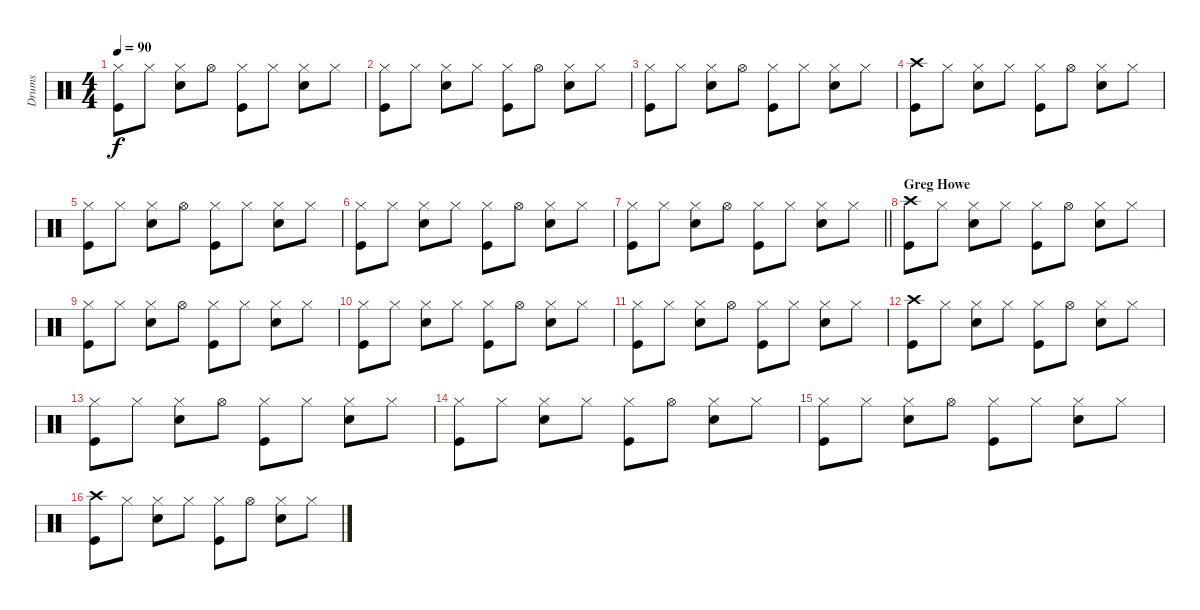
\track ("Drums" "Drums") {instrument percussion}
\staff {score}
\articulation defaults
\ts (4 4)
\tempo 90
\clef neutral
\ks c
("Hi-Hat (closed)" "Kick (hit)").8{dy f} "Hi-Hat (closed)".8 ("Hi-Hat (closed)" "Snare (hit) 2").8 "Hi-Hat (open)".8 ("Hi-Hat (closed)" "Kick (hit)").8 "Hi-Hat (closed)".8 ("Hi-Hat (closed)" "Snare (hit) 2").8 "Hi-Hat (closed)".8 |
("Hi-Hat (closed)" "Kick (hit)").8 "Hi-Hat (closed)".8 ("Hi-Hat (closed)" "Snare (hit) 2").8 "Hi-Hat (closed)".8 ("Hi-Hat (closed)" "Kick (hit)").8 "Hi-Hat (open)".8 ("Hi-Hat (closed)" "Snare (hit) 2").8 "Hi-Hat (closed)".8 |
("Hi-Hat (closed)" "Kick (hit)").8 "Hi-Hat (closed)".8 ("Hi-Hat (closed)" "Snare (hit) 2").8 "Hi-Hat (open)".8 ("Hi-Hat (closed)" "Kick (hit)").8 "Hi-Hat (closed)".8 ("Hi-Hat (closed)" "Snare (hit) 2").8 "Hi-Hat (closed)".8 |
("Crash high (hit)" "Kick (hit)").8 "Hi-Hat (closed)".8 ("Hi-Hat (closed)" "Snare (hit) 2").8 "Hi-Hat (closed)".8 ("Hi-Hat (closed)" "Kick (hit)").8 "Hi-Hat (open)".8 ("Hi-Hat (closed)" "Snare (hit) 2").8 "Hi-Hat (closed)".8 |
("Hi-Hat (closed)" "Kick (hit)").8 "Hi-Hat (closed)".8 ("Hi-Hat (closed)" "Snare (hit) 2").8 "Hi-Hat (open)".8 ("Hi-Hat (closed)" "Kick (hit)").8 "Hi-Hat (closed)".8 ("Hi-Hat (closed)" "Snare (hit) 2").8 "Hi-Hat (closed)".8 |
("Hi-Hat (closed)" "Kick (hit)").8 "Hi-Hat (closed)".8 ("Hi-Hat (closed)" "Snare (hit) 2").8 "Hi-Hat (closed)".8 ("Hi-Hat (closed)" "Kick (hit)").8 "Hi-Hat (open)".8 ("Hi-Hat (closed)" "Snare (hit) 2").8 "Hi-Hat (closed)".8 |
\barLineRight lightlight
("Hi-Hat (closed)" "Kick (hit)").8 "Hi-Hat (closed)".8 ("Hi-Hat (closed)" "Snare (hit) 2").8 "Hi-Hat (open)".8 ("Hi-Hat (closed)" "Kick (hit)").8 "Hi-Hat (closed)".8 ("Hi-Hat (closed)" "Snare (hit) 2").8 "Hi-Hat (closed)".8 |
\section ("" "Greg Howe")
("Crash high (hit)" "Kick (hit)").8 "Hi-Hat (closed)".8 ("Hi-Hat (closed)" "Snare (hit) 2").8 "Hi-Hat (closed)".8 ("Hi-Hat (closed)" "Kick (hit)").8 "Hi-Hat (open)".8 ("Hi-Hat (closed)" "Snare (hit) 2").8 "Hi-Hat (closed)".8 |
("Hi-Hat (closed)" "Kick (hit)").8 "Hi-Hat (closed)".8 ("Hi-Hat (closed)" "Snare (hit) 2").8 "Hi-Hat (open)".8 ("Hi-Hat (closed)" "Kick (hit)").8 "Hi-Hat (closed)".8 ("Hi-Hat (closed)" "Snare (hit) 2").8 "Hi-Hat (closed)".8 |
("Hi-Hat (closed)" "Kick (hit)").8 "Hi-Hat (closed)".8 ("Hi-Hat (closed)" "Snare (hit) 2").8 "Hi-Hat (closed)".8 ("Hi-Hat (closed)" "Kick (hit)").8 "Hi-Hat (open)".8 ("Hi-Hat (closed)" "Snare (hit) 2").8 "Hi-Hat (closed)".8 |
("Hi-Hat (closed)" "Kick (hit)").8 "Hi-Hat (closed)".8 ("Hi-Hat (closed)" "Snare (hit) 2").8 "Hi-Hat (open)".8 ("Hi-Hat (closed)" "Kick (hit)").8 "Hi-Hat (closed)".8 ("Hi-Hat (closed)" "Snare (hit) 2").8 "Hi-Hat (closed)".8 |
("Crash high (hit)" "Kick (hit)").8 "Hi-Hat (closed)".8 ("Hi-Hat (closed)" "Snare (hit) 2").8 "Hi-Hat (closed)".8 ("Hi-Hat (closed)" "Kick (hit)").8 "Hi-Hat (open)".8 ("Hi-Hat (closed)" "Snare (hit) 2").8 "Hi-Hat (closed)".8 |
("Hi-Hat (closed)" "Kick (hit)").8 "Hi-Hat (closed)".8 ("Hi-Hat (closed)" "Snare (hit) 2").8 "Hi-Hat (open)".8 ("Hi-Hat (closed)" "Kick (hit)").8 "Hi-Hat (closed)".8 ("Hi-Hat (closed)" "Snare (hit) 2").8 "Hi-Hat (closed)".8 |
("Hi-Hat (closed)" "Kick (hit)").8 "Hi-Hat (closed)".8 ("Hi-Hat (closed)" "Snare (hit) 2").8 "Hi-Hat (closed)".8 ("Hi-Hat (closed)" "Kick (hit)").8 "Hi-Hat (open)".8 ("Hi-Hat (closed)" "Snare (hit) 2").8 "Hi-Hat (closed)".8 |
("Hi-Hat (closed)" "Kick (hit)").8 "Hi-Hat (closed)".8 ("Hi-Hat (closed)" "Snare (hit) 2").8 "Hi-Hat (open)".8 ("Hi-Hat (closed)" "Kick (hit)").8 "Hi-Hat (closed)".8 ("Hi-Hat (closed)" "Snare (hit) 2").8 "Hi-Hat (closed)".8 |
("Crash high (hit)" "Kick (hit)").8 "Hi-Hat (closed)".8 ("Hi-Hat (closed)" "Snare (hit) 2").8 "Hi-Hat (closed)".8 ("Hi-Hat (closed)" "Kick (hit)").8 "Hi-Hat (open)".8 ("Hi-Hat (closed)" "Snare (hit) 2").8 "Hi-Hat (closed)".8
